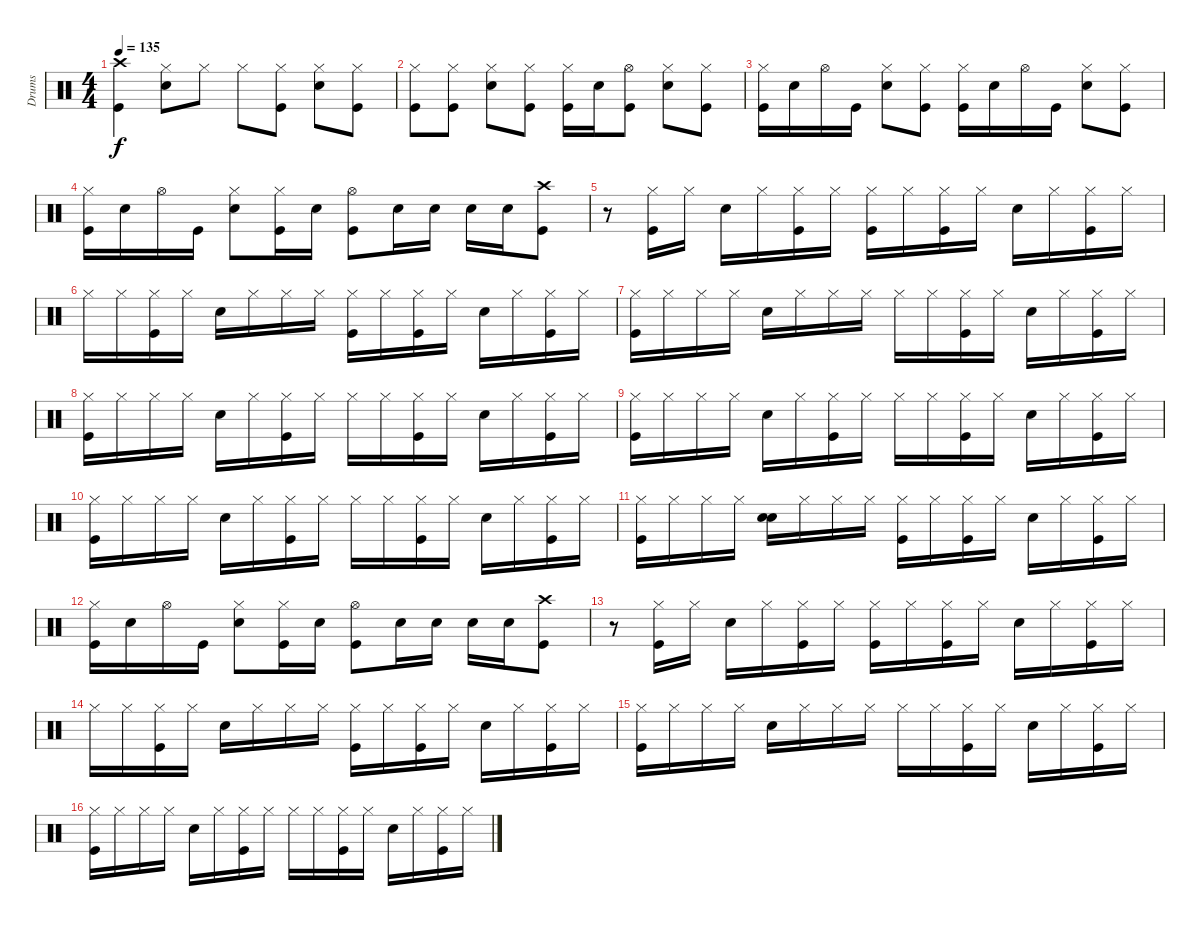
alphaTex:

\track ("Drums" "Drums") {instrument percussion}
\staff {score}
\articulation defaults
\ts (4 4)
\tempo 135
\clef neutral
\ks c
("Kick (hit)" "Crash high (hit)").4{dy f} ("Electric Snare (hit)" "Hi-Hat (closed)").8 "Hi-Hat (closed)".8 "Hi-Hat (closed)".8 ("Kick (hit)" "Hi-Hat (closed)").8 ("Electric Snare (hit)" "Hi-Hat (closed)").8 ("Kick (hit)" "Hi-Hat (closed)").8 |
("Kick (hit)" "Hi-Hat (closed)").8 ("Kick (hit)" "Hi-Hat (closed)").8 ("Electric Snare (hit)" "Hi-Hat (closed)").8 ("Kick (hit)" "Hi-Hat (closed)").8 ("Kick (hit)" "Hi-Hat (closed)").16 "Electric Snare (hit)".16 ("Kick (hit)" "Hi-Hat (open)").8 ("Electric Snare (hit)" "Hi-Hat (closed)").8 ("Kick (hit)" "Hi-Hat (closed)").8 |
("Kick (hit)" "Hi-Hat (closed)").16 "Electric Snare (hit)".16 "Hi-Hat (open)".16 "Kick (hit)".16 ("Electric Snare (hit)" "Hi-Hat (closed)").8 ("Kick (hit)" "Hi-Hat (closed)").8 ("Kick (hit)" "Hi-Hat (closed)").16 "Electric Snare (hit)".16 "Hi-Hat (open)".16 "Kick (hit)".16 ("Electric Snare (hit)" "Hi-Hat (closed)").8 ("Kick (hit)" "Hi-Hat (closed)").8 |
("Kick (hit)" "Hi-Hat (closed)").16 "Electric Snare (hit)".16 "Hi-Hat (open)".16 "Kick (hit)".16 ("Electric Snare (hit)" "Hi-Hat (closed)").8 ("Kick (hit)" "Hi-Hat (closed)").16 "Electric Snare (hit)".16 ("Kick (hit)" "Hi-Hat (open)").8 "Electric Snare (hit)".16 "Electric Snare (hit)".16 "Electric Snare (hit)".16 "Electric Snare (hit)".16 ("Kick (hit)" "Crash high (hit)").8 |
r.8 ("Kick (hit)" "Hi-Hat (closed)").16 "Hi-Hat (closed)".16 "Electric Snare (hit)".16 "Hi-Hat (closed)".16 ("Kick (hit)" "Hi-Hat (closed)").16 "Hi-Hat (closed)".16 ("Kick (hit)" "Hi-Hat (closed)").16 "Hi-Hat (closed)".16 ("Kick (hit)" "Hi-Hat (closed)").16 "Hi-Hat (closed)".16 "Electric Snare (hit)".16 "Hi-Hat (closed)".16 ("Kick (hit)" "Hi-Hat (closed)").16 "Hi-Hat (closed)".16 |
"Hi-Hat (closed)".16 "Hi-Hat (closed)".16 ("Kick (hit)" "Hi-Hat (closed)").16 "Hi-Hat (closed)".16 "Electric Snare (hit)".16 "Hi-Hat (closed)".16 "Hi-Hat (closed)".16 "Hi-Hat (closed)".16 ("Kick (hit)" "Hi-Hat (closed)").16 "Hi-Hat (closed)".16 ("Kick (hit)" "Hi-Hat (closed)").16 "Hi-Hat (closed)".16 "Electric Snare (hit)".16 "Hi-Hat (closed)".16 ("Kick (hit)" "Hi-Hat (closed)").16 "Hi-Hat (closed)".16 |
("Kick (hit)" "Hi-Hat (closed)").16 "Hi-Hat (closed)".16 "Hi-Hat (closed)".16 "Hi-Hat (closed)".16 "Electric Snare (hit)".16 "Hi-Hat (closed)".16 "Hi-Hat (closed)".16 "Hi-Hat (closed)".16 "Hi-Hat (closed)".16 "Hi-Hat (closed)".16 ("Kick (hit)" "Hi-Hat (closed)").16 "Hi-Hat (closed)".16 "Electric Snare (hit)".16 "Hi-Hat (closed)".16 ("Kick (hit)" "Hi-Hat (closed)").16 "Hi-Hat (closed)".16 |
("Kick (hit)" "Hi-Hat (closed)").16 "Hi-Hat (closed)".16 "Hi-Hat (closed)".16 "Hi-Hat (closed)".16 "Electric Snare (hit)".16 "Hi-Hat (closed)".16 ("Kick (hit)" "Hi-Hat (closed)").16 "Hi-Hat (closed)".16 "Hi-Hat (closed)".16 "Hi-Hat (closed)".16 ("Kick (hit)" "Hi-Hat (closed)").16 "Hi-Hat (closed)".16 "Electric Snare (hit)".16 "Hi-Hat (closed)".16 ("Kick (hit)" "Hi-Hat (closed)").16 "Hi-Hat (closed)".16 |
("Kick (hit)" "Hi-Hat (closed)").16 "Hi-Hat (closed)".16 "Hi-Hat (closed)".16 "Hi-Hat (closed)".16 "Electric Snare (hit)".16 "Hi-Hat (closed)".16 ("Kick (hit)" "Hi-Hat (closed)").16 "Hi-Hat (closed)".16 "Hi-Hat (closed)".16 "Hi-Hat (closed)".16 ("Kick (hit)" "Hi-Hat (closed)").16 "Hi-Hat (closed)".16 "Electric Snare (hit)".16 "Hi-Hat (closed)".16 ("Kick (hit)" "Hi-Hat (closed)").16 "Hi-Hat (closed)".16 |
("Kick (hit)" "Hi-Hat (closed)").16 "Hi-Hat (closed)".16 "Hi-Hat (closed)".16 "Hi-Hat (closed)".16 "Electric Snare (hit)".16 "Hi-Hat (closed)".16 ("Kick (hit)" "Hi-Hat (closed)").16 "Hi-Hat (closed)".16 "Hi-Hat (closed)".16 "Hi-Hat (closed)".16 ("Kick (hit)" "Hi-Hat (closed)").16 "Hi-Hat (closed)".16 "Electric Snare (hit)".16 "Hi-Hat (closed)".16 ("Kick (hit)" "Hi-Hat (closed)").16 "Hi-Hat (closed)".16 |
("Kick (hit)" "Hi-Hat (closed)").16 "Hi-Hat (closed)".16 "Hi-Hat (closed)".16 "Hi-Hat (closed)".16 ("Snare (hit)" "Electric Snare (hit)").16 "Hi-Hat (closed)".16 "Hi-Hat (closed)".16 "Hi-Hat (closed)".16 ("Kick (hit)" "Hi-Hat (closed)").16 "Hi-Hat (closed)".16 ("Kick (hit)" "Hi-Hat (closed)").16 "Hi-Hat (closed)".16 "Electric Snare (hit)".16 "Hi-Hat (closed)".16 ("Kick (hit)" "Hi-Hat (closed)").16 "Hi-Hat (closed)".16 |
("Kick (hit)" "Hi-Hat (closed)").16 "Electric Snare (hit)".16 "Hi-Hat (open)".16 "Kick (hit)".16 ("Electric Snare (hit)" "Hi-Hat (closed)").8 ("Kick (hit)" "Hi-Hat (closed)").16 "Electric Snare (hit)".16 ("Kick (hit)" "Hi-Hat (open)").8 "Electric Snare (hit)".16 "Electric Snare (hit)".16 "Electric Snare (hit)".16 "Electric Snare (hit)".16 ("Kick (hit)" "Crash high (hit)").8 |
r.8 ("Kick (hit)" "Hi-Hat (closed)").16 "Hi-Hat (closed)".16 "Electric Snare (hit)".16 "Hi-Hat (closed)".16 ("Kick (hit)" "Hi-Hat (closed)").16 "Hi-Hat (closed)".16 ("Kick (hit)" "Hi-Hat (closed)").16 "Hi-Hat (closed)".16 ("Kick (hit)" "Hi-Hat (closed)").16 "Hi-Hat (closed)".16 "Electric Snare (hit)".16 "Hi-Hat (closed)".16 ("Kick (hit)" "Hi-Hat (closed)").16 "Hi-Hat (closed)".16 |
"Hi-Hat (closed)".16 "Hi-Hat (closed)".16 ("Kick (hit)" "Hi-Hat (closed)").16 "Hi-Hat (closed)".16 "Electric Snare (hit)".16 "Hi-Hat (closed)".16 "Hi-Hat (closed)".16 "Hi-Hat (closed)".16 ("Kick (hit)" "Hi-Hat (closed)").16 "Hi-Hat (closed)".16 ("Kick (hit)" "Hi-Hat (closed)").16 "Hi-Hat (closed)".16 "Electric Snare (hit)".16 "Hi-Hat (closed)".16 ("Kick (hit)" "Hi-Hat (closed)").16 "Hi-Hat (closed)".16 |
("Kick (hit)" "Hi-Hat (closed)").16 "Hi-Hat (closed)".16 "Hi-Hat (closed)".16 "Hi-Hat (closed)".16 "Electric Snare (hit)".16 "Hi-Hat (closed)".16 "Hi-Hat (closed)".16 "Hi-Hat (closed)".16 "Hi-Hat (closed)".16 "Hi-Hat (closed)".16 ("Kick (hit)" "Hi-Hat (closed)").16 "Hi-Hat (closed)".16 "Electric Snare (hit)".16 "Hi-Hat (closed)".16 ("Kick (hit)" "Hi-Hat (closed)").16 "Hi-Hat (closed)".16 |
("Kick (hit)" "Hi-Hat (closed)").16 "Hi-Hat (closed)".16 "Hi-Hat (closed)".16 "Hi-Hat (closed)".16 "Electric Snare (hit)".16 "Hi-Hat (closed)".16 ("Kick (hit)" "Hi-Hat (closed)").16 "Hi-Hat (closed)".16 "Hi-Hat (closed)".16 "Hi-Hat (closed)".16 ("Kick (hit)" "Hi-Hat (closed)").16 "Hi-Hat (closed)".16 "Electric Snare (hit)".16 "Hi-Hat (closed)".16 ("Kick (hit)" "Hi-Hat (closed)").16 "Hi-Hat (closed)".16
